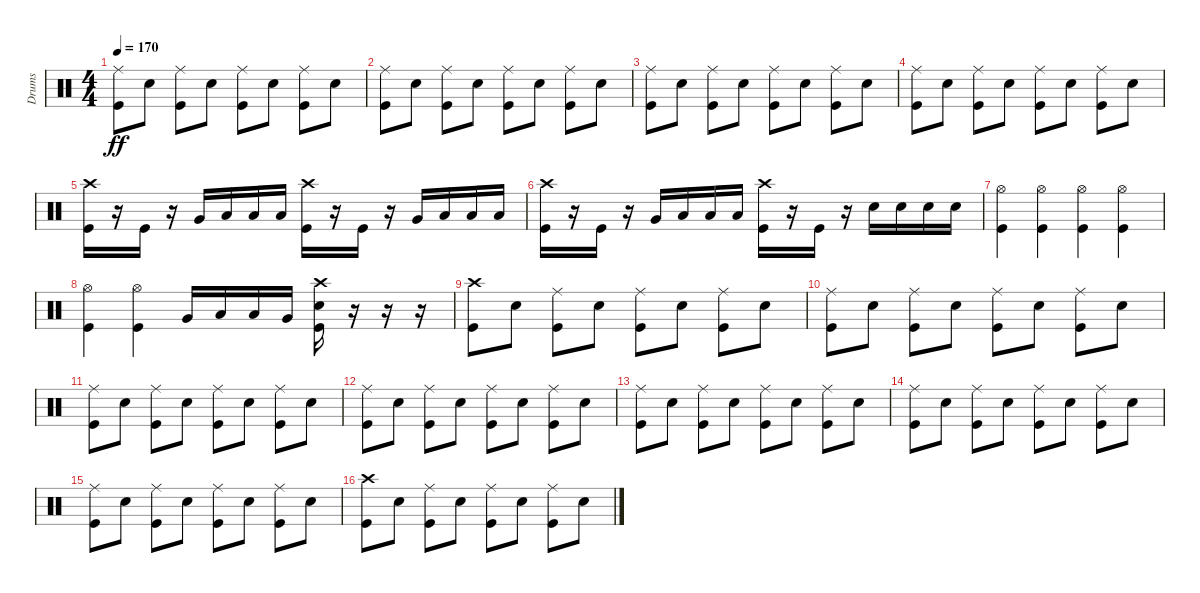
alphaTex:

\track ("Drums" "Drums") {instrument percussion}
\staff {score}
\articulation defaults
\ts (4 4)
\tempo 170
\clef neutral
\ks c
("Ride (middle)" "Kick (hit)").8{dy ff} "Snare (hit) 2".8 ("Ride (middle)" "Kick (hit)").8 "Snare (hit) 2".8 ("Ride (middle)" "Kick (hit)").8 "Snare (hit) 2".8 ("Ride (middle)" "Kick (hit)").8 "Snare (hit) 2".8 |
("Ride (middle)" "Kick (hit)").8 "Snare (hit) 2".8 ("Ride (middle)" "Kick (hit)").8 "Snare (hit) 2".8 ("Ride (middle)" "Kick (hit)").8 "Snare (hit) 2".8 ("Ride (middle)" "Kick (hit)").8 "Snare (hit) 2".8 |
("Ride (middle)" "Kick (hit)").8 "Snare (hit) 2".8 ("Ride (middle)" "Kick (hit)").8 "Snare (hit) 2".8 ("Ride (middle)" "Kick (hit)").8 "Snare (hit) 2".8 ("Ride (middle)" "Kick (hit)").8 "Snare (hit) 2".8 |
("Ride (middle)" "Kick (hit)").8 "Snare (hit) 2".8 ("Ride (middle)" "Kick (hit)").8 "Snare (hit) 2".8 ("Ride (middle)" "Kick (hit)").8 "Snare (hit) 2".8 ("Ride (middle)" "Kick (hit)").8 "Snare (hit) 2".8 |
("Crash high (hit)" "Kick (hit)").16 r.16 "Kick (hit)".16 r.16 "Very Low Tom (hit)".16 "Low Floor Tom (hit)".16 "Low Floor Tom (hit)".16 "Low Floor Tom (hit)".16 ("Crash high (hit)" "Kick (hit)").16 r.16 "Kick (hit)".16 r.16 "Very Low Tom (hit)".16 "Low Floor Tom (hit)".16 "Low Floor Tom (hit)".16 "Low Floor Tom (hit)".16 |
("Crash high (hit)" "Kick (hit)").16 r.16 "Kick (hit)".16 r.16 "Very Low Tom (hit)".16 "Low Floor Tom (hit)".16 "Low Floor Tom (hit)".16 "Low Floor Tom (hit)".16 ("Crash high (hit)" "Kick (hit)").16 r.16 "Kick (hit)".16 r.16 "Snare (hit) 2".16 "Snare (hit) 2".16 "Snare (hit) 2".16 "Snare (hit) 2".16 |
("Hi-Hat (open)" "Kick (hit)").4 ("Hi-Hat (open)" "Kick (hit)").4 ("Hi-Hat (open)" "Kick (hit)").4 ("Hi-Hat (open)" "Kick (hit)").4 |
("Hi-Hat (open)" "Kick (hit)").4 ("Hi-Hat (open)" "Kick (hit)").4 "Very Low Tom (hit)".16 "Low Floor Tom (hit)".16 "Low Floor Tom (hit)".16 "Very Low Tom (hit)".16 ("Crash high (hit)" "Snare (hit) 2" "Kick (hit)").16 r.16 r.16 r.16 |
("Crash high (hit)" "Kick (hit)").8 "Snare (hit) 2".8 ("Ride (middle)" "Kick (hit)").8 "Snare (hit) 2".8 ("Ride (middle)" "Kick (hit)").8 "Snare (hit) 2".8 ("Ride (middle)" "Kick (hit)").8 "Snare (hit) 2".8 |
("Ride (middle)" "Kick (hit)").8 "Snare (hit) 2".8 ("Ride (middle)" "Kick (hit)").8 "Snare (hit) 2".8 ("Ride (middle)" "Kick (hit)").8 "Snare (hit) 2".8 ("Ride (middle)" "Kick (hit)").8 "Snare (hit) 2".8 |
("Ride (middle)" "Kick (hit)").8 "Snare (hit) 2".8 ("Ride (middle)" "Kick (hit)").8 "Snare (hit) 2".8 ("Ride (middle)" "Kick (hit)").8 "Snare (hit) 2".8 ("Ride (middle)" "Kick (hit)").8 "Snare (hit) 2".8 |
("Ride (middle)" "Kick (hit)").8 "Snare (hit) 2".8 ("Ride (middle)" "Kick (hit)").8 "Snare (hit) 2".8 ("Ride (middle)" "Kick (hit)").8 "Snare (hit) 2".8 ("Ride (middle)" "Kick (hit)").8 "Snare (hit) 2".8 |
("Ride (middle)" "Kick (hit)").8 "Snare (hit) 2".8 ("Ride (middle)" "Kick (hit)").8 "Snare (hit) 2".8 ("Ride (middle)" "Kick (hit)").8 "Snare (hit) 2".8 ("Ride (middle)" "Kick (hit)").8 "Snare (hit) 2".8 |
("Ride (middle)" "Kick (hit)").8 "Snare (hit) 2".8 ("Ride (middle)" "Kick (hit)").8 "Snare (hit) 2".8 ("Ride (middle)" "Kick (hit)").8 "Snare (hit) 2".8 ("Ride (middle)" "Kick (hit)").8 "Snare (hit) 2".8 |
("Ride (middle)" "Kick (hit)").8 "Snare (hit) 2".8 ("Ride (middle)" "Kick (hit)").8 "Snare (hit) 2".8 ("Ride (middle)" "Kick (hit)").8 "Snare (hit) 2".8 ("Ride (middle)" "Kick (hit)").8 "Snare (hit) 2".8 |
("Crash high (hit)" "Kick (hit)").8 "Snare (hit) 2".8 ("Ride (middle)" "Kick (hit)").8 "Snare (hit) 2".8 ("Ride (middle)" "Kick (hit)").8 "Snare (hit) 2".8 ("Ride (middle)" "Kick (hit)").8 "Snare (hit) 2".8
